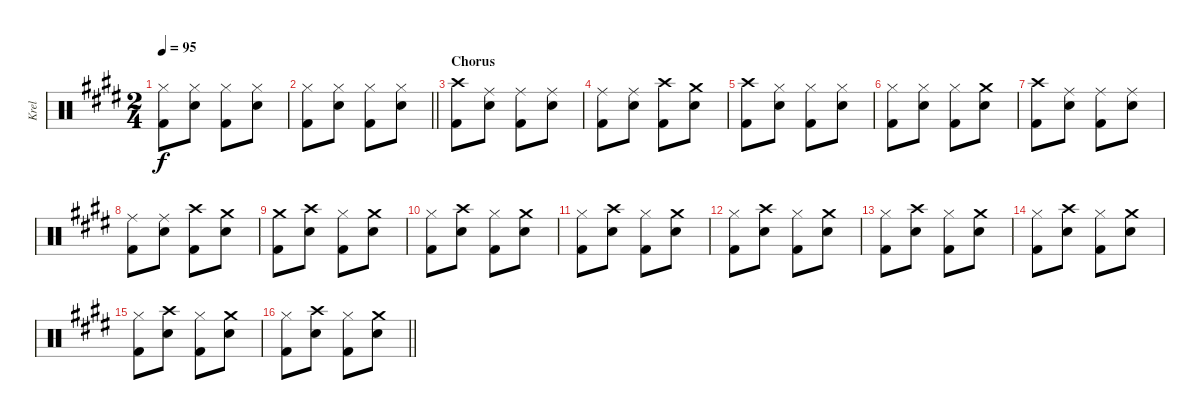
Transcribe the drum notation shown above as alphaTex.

\track ("Krel" "Krel") {instrument percussion}
\staff {score}
\articulation defaults
\ts (2 4)
\tempo 95
\clef neutral
\ks e
("Hi-Hat (closed)" "Kick (hit) 2").8{dy f} ("Hi-Hat (closed)" "Snare (hit) 2").8 ("Hi-Hat (closed)" "Kick (hit) 2").8 ("Hi-Hat (closed)" "Snare (hit) 2").8 |
\barLineRight lightlight
("Hi-Hat (closed)" "Kick (hit) 2").8 ("Hi-Hat (closed)" "Snare (hit) 2").8 ("Hi-Hat (closed)" "Kick (hit) 2").8 ("Hi-Hat (closed)" "Snare (hit) 2").8 |
\section ("" "Chorus")
("Crash high (hit)" "Kick (hit) 2").8 ("Ride (middle)" "Snare (hit) 2").8 ("Ride (middle)" "Kick (hit) 2").8 ("Ride (middle)" "Snare (hit) 2").8 |
("Ride (middle)" "Kick (hit) 2").8 ("Ride (middle)" "Snare (hit) 2").8 ("Crash high (hit)" "Kick (hit) 2").8 ("Crash medium (hit)" "Snare (hit) 2").8 |
("Crash high (hit)" "Kick (hit) 2").8 ("Hi-Hat (closed)" "Snare (hit) 2").8 ("Hi-Hat (closed)" "Kick (hit) 2").8 ("Hi-Hat (closed)" "Snare (hit) 2").8 |
("Hi-Hat (closed)" "Kick (hit) 2").8 ("Hi-Hat (closed)" "Snare (hit) 2").8 ("Hi-Hat (closed)" "Kick (hit) 2").8 ("Crash medium (hit)" "Snare (hit) 2").8 |
("Crash high (hit)" "Kick (hit) 2").8 ("Ride (middle)" "Snare (hit) 2").8 ("Ride (middle)" "Kick (hit) 2").8 ("Ride (middle)" "Snare (hit) 2").8 |
("Ride (middle)" "Kick (hit) 2").8 ("Ride (middle)" "Snare (hit) 2").8 ("Crash high (hit)" "Kick (hit) 2").8 ("Crash medium (hit)" "Snare (hit) 2").8 |
("Crash medium (hit)" "Kick (hit) 2").8 ("Crash high (hit)" "Snare (hit) 2").8 ("Hi-Hat (closed)" "Kick (hit) 2").8 ("Crash medium (hit)" "Snare (hit) 2").8 |
("Hi-Hat (closed)" "Kick (hit) 2").8 ("Crash high (hit)" "Snare (hit) 2").8 ("Hi-Hat (closed)" "Kick (hit) 2").8 ("Crash medium (hit)" "Snare (hit) 2").8 |
("Hi-Hat (closed)" "Kick (hit) 2").8 ("Crash high (hit)" "Snare (hit) 2").8 ("Hi-Hat (closed)" "Kick (hit) 2").8 ("Crash medium (hit)" "Snare (hit) 2").8 |
("Hi-Hat (closed)" "Kick (hit) 2").8 ("Crash high (hit)" "Snare (hit) 2").8 ("Hi-Hat (closed)" "Kick (hit) 2").8 ("Crash medium (hit)" "Snare (hit) 2").8 |
("Hi-Hat (closed)" "Kick (hit) 2").8 ("Crash high (hit)" "Snare (hit) 2").8 ("Hi-Hat (closed)" "Kick (hit) 2").8 ("Crash medium (hit)" "Snare (hit) 2").8 |
("Hi-Hat (closed)" "Kick (hit) 2").8 ("Crash high (hit)" "Snare (hit) 2").8 ("Hi-Hat (closed)" "Kick (hit) 2").8 ("Crash medium (hit)" "Snare (hit) 2").8 |
("Hi-Hat (closed)" "Kick (hit) 2").8 ("Crash high (hit)" "Snare (hit) 2").8 ("Hi-Hat (closed)" "Kick (hit) 2").8 ("Crash medium (hit)" "Snare (hit) 2").8 |
\barLineRight lightlight
("Hi-Hat (closed)" "Kick (hit) 2").8 ("Crash high (hit)" "Snare (hit) 2").8 ("Hi-Hat (closed)" "Kick (hit) 2").8 ("Crash medium (hit)" "Snare (hit) 2").8
